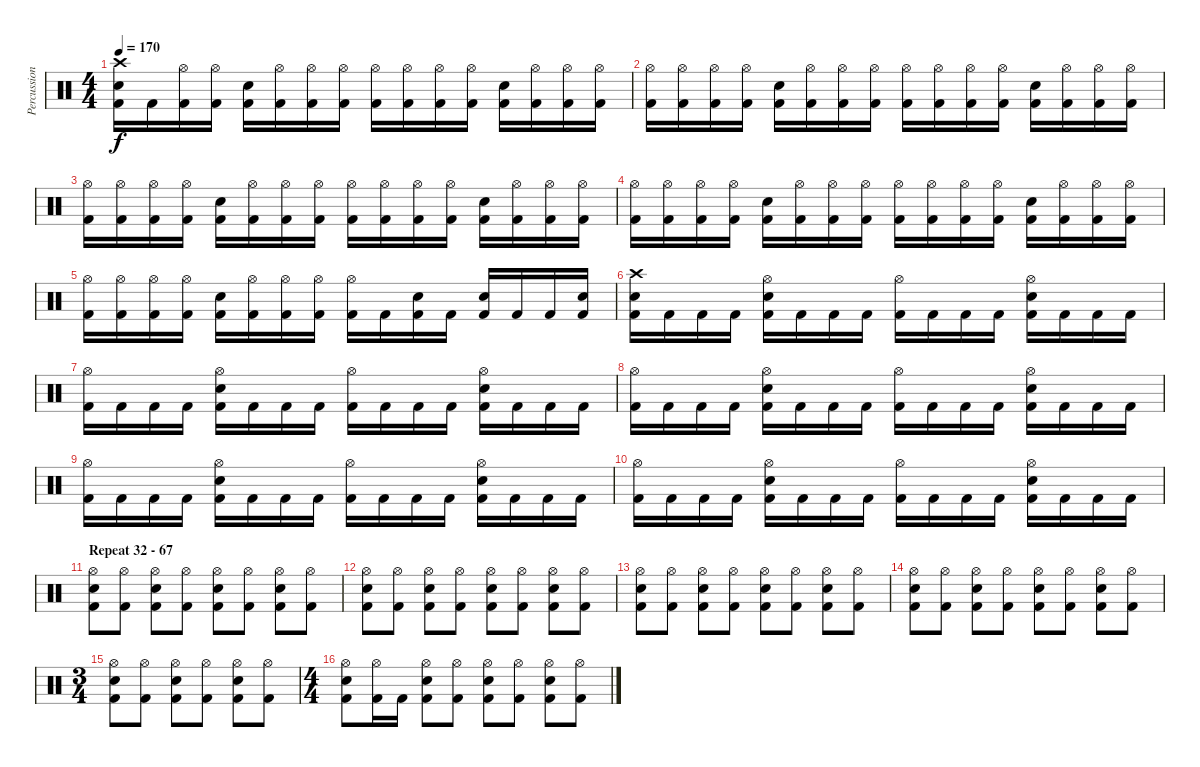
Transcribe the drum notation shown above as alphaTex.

\track ("Percussion" "Percussion") {instrument percussion}
\staff {score}
\articulation defaults
\ts (4 4)
\tempo 170
\clef neutral
\ks c
("Kick (hit) 2" "Snare (hit) 2" "Crash high (hit)").16{dy f} "Kick (hit) 2".16 ("Kick (hit) 2" "Hi-Hat (open)").16 ("Kick (hit) 2" "Hi-Hat (open)").16 ("Kick (hit) 2" "Snare (hit) 2").16 ("Kick (hit) 2" "Hi-Hat (open)").16 ("Kick (hit) 2" "Hi-Hat (open)").16 ("Kick (hit) 2" "Hi-Hat (open)").16 ("Kick (hit) 2" "Hi-Hat (open)").16 ("Kick (hit) 2" "Hi-Hat (open)").16 ("Kick (hit) 2" "Hi-Hat (open)").16 ("Kick (hit) 2" "Hi-Hat (open)").16 ("Kick (hit) 2" "Snare (hit) 2").16 ("Kick (hit) 2" "Hi-Hat (open)").16 ("Kick (hit) 2" "Hi-Hat (open)").16 ("Kick (hit) 2" "Hi-Hat (open)").16 |
("Kick (hit) 2" "Hi-Hat (open)").16 ("Kick (hit) 2" "Hi-Hat (open)").16 ("Kick (hit) 2" "Hi-Hat (open)").16 ("Kick (hit) 2" "Hi-Hat (open)").16 ("Kick (hit) 2" "Snare (hit) 2").16 ("Kick (hit) 2" "Hi-Hat (open)").16 ("Kick (hit) 2" "Hi-Hat (open)").16 ("Kick (hit) 2" "Hi-Hat (open)").16 ("Kick (hit) 2" "Hi-Hat (open)").16 ("Kick (hit) 2" "Hi-Hat (open)").16 ("Kick (hit) 2" "Hi-Hat (open)").16 ("Kick (hit) 2" "Hi-Hat (open)").16 ("Kick (hit) 2" "Snare (hit) 2").16 ("Kick (hit) 2" "Hi-Hat (open)").16 ("Kick (hit) 2" "Hi-Hat (open)").16 ("Kick (hit) 2" "Hi-Hat (open)").16 |
("Kick (hit) 2" "Hi-Hat (open)").16 ("Kick (hit) 2" "Hi-Hat (open)").16 ("Kick (hit) 2" "Hi-Hat (open)").16 ("Kick (hit) 2" "Hi-Hat (open)").16 ("Kick (hit) 2" "Snare (hit) 2").16 ("Kick (hit) 2" "Hi-Hat (open)").16 ("Kick (hit) 2" "Hi-Hat (open)").16 ("Kick (hit) 2" "Hi-Hat (open)").16 ("Kick (hit) 2" "Hi-Hat (open)").16 ("Kick (hit) 2" "Hi-Hat (open)").16 ("Kick (hit) 2" "Hi-Hat (open)").16 ("Kick (hit) 2" "Hi-Hat (open)").16 ("Kick (hit) 2" "Snare (hit) 2").16 ("Kick (hit) 2" "Hi-Hat (open)").16 ("Kick (hit) 2" "Hi-Hat (open)").16 ("Kick (hit) 2" "Hi-Hat (open)").16 |
("Kick (hit) 2" "Hi-Hat (open)").16 ("Kick (hit) 2" "Hi-Hat (open)").16 ("Kick (hit) 2" "Hi-Hat (open)").16 ("Kick (hit) 2" "Hi-Hat (open)").16 ("Kick (hit) 2" "Snare (hit) 2").16 ("Kick (hit) 2" "Hi-Hat (open)").16 ("Kick (hit) 2" "Hi-Hat (open)").16 ("Kick (hit) 2" "Hi-Hat (open)").16 ("Kick (hit) 2" "Hi-Hat (open)").16 ("Kick (hit) 2" "Hi-Hat (open)").16 ("Kick (hit) 2" "Hi-Hat (open)").16 ("Kick (hit) 2" "Hi-Hat (open)").16 ("Kick (hit) 2" "Snare (hit) 2").16 ("Kick (hit) 2" "Hi-Hat (open)").16 ("Kick (hit) 2" "Hi-Hat (open)").16 ("Kick (hit) 2" "Hi-Hat (open)").16 |
("Kick (hit) 2" "Hi-Hat (open)").16 ("Kick (hit) 2" "Hi-Hat (open)").16 ("Kick (hit) 2" "Hi-Hat (open)").16 ("Kick (hit) 2" "Hi-Hat (open)").16 ("Kick (hit) 2" "Snare (hit) 2").16 ("Kick (hit) 2" "Hi-Hat (open)").16 ("Kick (hit) 2" "Hi-Hat (open)").16 ("Kick (hit) 2" "Hi-Hat (open)").16 ("Kick (hit) 2" "Hi-Hat (open)").16 "Kick (hit) 2".16 ("Kick (hit) 2" "Snare (hit) 2").16 "Kick (hit) 2".16 ("Kick (hit) 2" "Snare (hit) 2").16 "Kick (hit) 2".16 "Kick (hit) 2".16 ("Kick (hit) 2" "Snare (hit) 2").16 |
("Kick (hit) 2" "Snare (hit) 2" "Crash high (hit)").16 "Kick (hit) 2".16 "Kick (hit) 2".16 "Kick (hit) 2".16 ("Kick (hit) 2" "Snare (hit) 2" "Hi-Hat (open)").16 "Kick (hit) 2".16 "Kick (hit) 2".16 "Kick (hit) 2".16 ("Kick (hit) 2" "Hi-Hat (open)").16 "Kick (hit) 2".16 "Kick (hit) 2".16 "Kick (hit) 2".16 ("Kick (hit) 2" "Snare (hit) 2" "Hi-Hat (open)").16 "Kick (hit) 2".16 "Kick (hit) 2".16 "Kick (hit) 2".16 |
("Kick (hit) 2" "Hi-Hat (open)").16 "Kick (hit) 2".16 "Kick (hit) 2".16 "Kick (hit) 2".16 ("Kick (hit) 2" "Snare (hit) 2" "Hi-Hat (open)").16 "Kick (hit) 2".16 "Kick (hit) 2".16 "Kick (hit) 2".16 ("Kick (hit) 2" "Hi-Hat (open)").16 "Kick (hit) 2".16 "Kick (hit) 2".16 "Kick (hit) 2".16 ("Kick (hit) 2" "Snare (hit) 2" "Hi-Hat (open)").16 "Kick (hit) 2".16 "Kick (hit) 2".16 "Kick (hit) 2".16 |
("Kick (hit) 2" "Hi-Hat (open)").16 "Kick (hit) 2".16 "Kick (hit) 2".16 "Kick (hit) 2".16 ("Kick (hit) 2" "Snare (hit) 2" "Hi-Hat (open)").16 "Kick (hit) 2".16 "Kick (hit) 2".16 "Kick (hit) 2".16 ("Kick (hit) 2" "Hi-Hat (open)").16 "Kick (hit) 2".16 "Kick (hit) 2".16 "Kick (hit) 2".16 ("Kick (hit) 2" "Snare (hit) 2" "Hi-Hat (open)").16 "Kick (hit) 2".16 "Kick (hit) 2".16 "Kick (hit) 2".16 |
("Kick (hit) 2" "Hi-Hat (open)").16 "Kick (hit) 2".16 "Kick (hit) 2".16 "Kick (hit) 2".16 ("Kick (hit) 2" "Snare (hit) 2" "Hi-Hat (open)").16 "Kick (hit) 2".16 "Kick (hit) 2".16 "Kick (hit) 2".16 ("Kick (hit) 2" "Hi-Hat (open)").16 "Kick (hit) 2".16 "Kick (hit) 2".16 "Kick (hit) 2".16 ("Kick (hit) 2" "Snare (hit) 2" "Hi-Hat (open)").16 "Kick (hit) 2".16 "Kick (hit) 2".16 "Kick (hit) 2".16 |
("Kick (hit) 2" "Hi-Hat (open)").16 "Kick (hit) 2".16 "Kick (hit) 2".16 "Kick (hit) 2".16 ("Kick (hit) 2" "Snare (hit) 2" "Hi-Hat (open)").16 "Kick (hit) 2".16 "Kick (hit) 2".16 "Kick (hit) 2".16 ("Kick (hit) 2" "Hi-Hat (open)").16 "Kick (hit) 2".16 "Kick (hit) 2".16 "Kick (hit) 2".16 ("Kick (hit) 2" "Snare (hit) 2" "Hi-Hat (open)").16 "Kick (hit) 2".16 "Kick (hit) 2".16 "Kick (hit) 2".16 |
\section ("" "Repeat 32 - 67")
("Kick (hit) 2" "Snare (hit) 2" "Hi-Hat (open)").8 ("Kick (hit) 2" "Hi-Hat (open)").8 ("Kick (hit) 2" "Snare (hit) 2" "Hi-Hat (open)").8 ("Kick (hit) 2" "Hi-Hat (open)").8 ("Kick (hit) 2" "Snare (hit) 2" "Hi-Hat (open)").8 ("Kick (hit) 2" "Hi-Hat (open)").8 ("Kick (hit) 2" "Snare (hit) 2" "Hi-Hat (open)").8 ("Kick (hit) 2" "Hi-Hat (open)").8 |
("Kick (hit) 2" "Snare (hit) 2" "Hi-Hat (open)").8 ("Kick (hit) 2" "Hi-Hat (open)").8 ("Kick (hit) 2" "Snare (hit) 2" "Hi-Hat (open)").8 ("Kick (hit) 2" "Hi-Hat (open)").8 ("Kick (hit) 2" "Snare (hit) 2" "Hi-Hat (open)").8 ("Kick (hit) 2" "Hi-Hat (open)").8 ("Kick (hit) 2" "Snare (hit) 2" "Hi-Hat (open)").8 ("Kick (hit) 2" "Hi-Hat (open)").8 |
("Kick (hit) 2" "Snare (hit) 2" "Hi-Hat (open)").8 ("Kick (hit) 2" "Hi-Hat (open)").8 ("Kick (hit) 2" "Snare (hit) 2" "Hi-Hat (open)").8 ("Kick (hit) 2" "Hi-Hat (open)").8 ("Kick (hit) 2" "Snare (hit) 2" "Hi-Hat (open)").8 ("Kick (hit) 2" "Hi-Hat (open)").8 ("Kick (hit) 2" "Snare (hit) 2" "Hi-Hat (open)").8 ("Kick (hit) 2" "Hi-Hat (open)").8 |
("Kick (hit) 2" "Snare (hit) 2" "Hi-Hat (open)").8 ("Kick (hit) 2" "Hi-Hat (open)").8 ("Kick (hit) 2" "Snare (hit) 2" "Hi-Hat (open)").8 ("Kick (hit) 2" "Hi-Hat (open)").8 ("Kick (hit) 2" "Snare (hit) 2" "Hi-Hat (open)").8 ("Kick (hit) 2" "Hi-Hat (open)").8 ("Kick (hit) 2" "Snare (hit) 2" "Hi-Hat (open)").8 ("Kick (hit) 2" "Hi-Hat (open)").8 |
\ts (3 4)
("Kick (hit) 2" "Snare (hit) 2" "Hi-Hat (open)").8 ("Kick (hit) 2" "Hi-Hat (open)").8 ("Kick (hit) 2" "Snare (hit) 2" "Hi-Hat (open)").8 ("Kick (hit) 2" "Hi-Hat (open)").8 ("Kick (hit) 2" "Snare (hit) 2" "Hi-Hat (open)").8 ("Kick (hit) 2" "Hi-Hat (open)").8 |
\ts (4 4)
("Kick (hit) 2" "Snare (hit) 2" "Hi-Hat (open)").8 ("Kick (hit) 2" "Hi-Hat (open)").16 "Kick (hit) 2".16 ("Kick (hit) 2" "Snare (hit) 2" "Hi-Hat (open)").8 ("Kick (hit) 2" "Hi-Hat (open)").8 ("Kick (hit) 2" "Snare (hit) 2" "Hi-Hat (open)").8 ("Kick (hit) 2" "Hi-Hat (open)").8 ("Kick (hit) 2" "Snare (hit) 2" "Hi-Hat (open)").8 ("Kick (hit) 2" "Hi-Hat (open)").8
